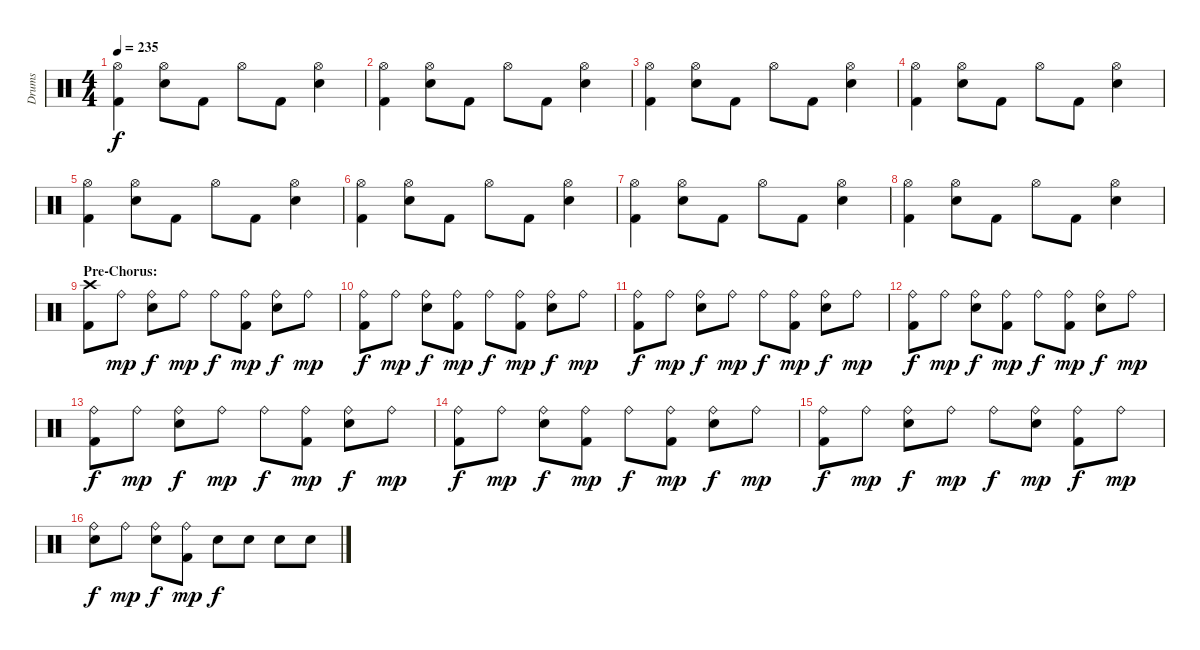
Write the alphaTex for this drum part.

\track ("Drums" "Drums") {instrument percussion}
\staff {score}
\articulation defaults
\ts (4 4)
\tempo 235
\clef neutral
\ks c
("Hi-Hat (open)" "Kick (hit) 2").4{dy f} ("Hi-Hat (open)" "Snare (hit) 2").8 "Kick (hit) 2".8 "Hi-Hat (open)".8 "Kick (hit) 2".8 ("Hi-Hat (open)" "Snare (hit) 2").4 |
("Hi-Hat (open)" "Kick (hit) 2").4 ("Hi-Hat (open)" "Snare (hit) 2").8 "Kick (hit) 2".8 "Hi-Hat (open)".8 "Kick (hit) 2".8 ("Hi-Hat (open)" "Snare (hit) 2").4 |
("Hi-Hat (open)" "Kick (hit) 2").4 ("Hi-Hat (open)" "Snare (hit) 2").8 "Kick (hit) 2".8 "Hi-Hat (open)".8 "Kick (hit) 2".8 ("Hi-Hat (open)" "Snare (hit) 2").4 |
("Hi-Hat (open)" "Kick (hit) 2").4 ("Hi-Hat (open)" "Snare (hit) 2").8 "Kick (hit) 2".8 "Hi-Hat (open)".8 "Kick (hit) 2".8 ("Hi-Hat (open)" "Snare (hit) 2").4 |
("Hi-Hat (open)" "Kick (hit) 2").4 ("Hi-Hat (open)" "Snare (hit) 2").8 "Kick (hit) 2".8 "Hi-Hat (open)".8 "Kick (hit) 2".8 ("Hi-Hat (open)" "Snare (hit) 2").4 |
("Hi-Hat (open)" "Kick (hit) 2").4 ("Hi-Hat (open)" "Snare (hit) 2").8 "Kick (hit) 2".8 "Hi-Hat (open)".8 "Kick (hit) 2".8 ("Hi-Hat (open)" "Snare (hit) 2").4 |
("Hi-Hat (open)" "Kick (hit) 2").4 ("Hi-Hat (open)" "Snare (hit) 2").8 "Kick (hit) 2".8 "Hi-Hat (open)".8 "Kick (hit) 2".8 ("Hi-Hat (open)" "Snare (hit) 2").4 |
("Hi-Hat (open)" "Kick (hit) 2").4 ("Hi-Hat (open)" "Snare (hit) 2").8 "Kick (hit) 2".8 "Hi-Hat (open)".8 "Kick (hit) 2".8 ("Hi-Hat (open)" "Snare (hit) 2").4 |
\section ("" "Pre-Chorus:")
("Crash high (hit)" "Kick (hit) 2").8 "Ride (bell)".8{dy mp} ("Ride (bell)" "Snare (hit) 2").8{dy f} "Ride (bell)".8{dy mp} "Ride (bell)".8{dy f} ("Ride (bell)" "Kick (hit) 2").8{dy mp} ("Ride (bell)" "Snare (hit) 2").8{dy f} "Ride (bell)".8{dy mp} |
("Ride (bell)" "Kick (hit) 2").8{dy f} "Ride (bell)".8{dy mp} ("Ride (bell)" "Snare (hit) 2").8{dy f} ("Ride (bell)" "Kick (hit) 2").8{dy mp} "Ride (bell)".8{dy f} ("Ride (bell)" "Kick (hit) 2").8{dy mp} ("Ride (bell)" "Snare (hit) 2").8{dy f} "Ride (bell)".8{dy mp} |
("Ride (bell)" "Kick (hit) 2").8{dy f} "Ride (bell)".8{dy mp} ("Ride (bell)" "Snare (hit) 2").8{dy f} "Ride (bell)".8{dy mp} "Ride (bell)".8{dy f} ("Ride (bell)" "Kick (hit) 2").8{dy mp} ("Ride (bell)" "Snare (hit) 2").8{dy f} "Ride (bell)".8{dy mp} |
("Ride (bell)" "Kick (hit) 2").8{dy f} "Ride (bell)".8{dy mp} ("Ride (bell)" "Snare (hit) 2").8{dy f} ("Ride (bell)" "Kick (hit) 2").8{dy mp} "Ride (bell)".8{dy f} ("Ride (bell)" "Kick (hit) 2").8{dy mp} ("Ride (bell)" "Snare (hit) 2").8{dy f} "Ride (bell)".8{dy mp} |
("Ride (bell)" "Kick (hit) 2").8{dy f} "Ride (bell)".8{dy mp} ("Ride (bell)" "Snare (hit) 2").8{dy f} "Ride (bell)".8{dy mp} "Ride (bell)".8{dy f} ("Ride (bell)" "Kick (hit) 2").8{dy mp} ("Ride (bell)" "Snare (hit) 2").8{dy f} "Ride (bell)".8{dy mp} |
("Ride (bell)" "Kick (hit) 2").8{dy f} "Ride (bell)".8{dy mp} ("Ride (bell)" "Snare (hit) 2").8{dy f} ("Ride (bell)" "Kick (hit) 2").8{dy mp} "Ride (bell)".8{dy f} ("Ride (bell)" "Kick (hit) 2").8{dy mp} ("Ride (bell)" "Snare (hit) 2").8{dy f} "Ride (bell)".8{dy mp} |
("Ride (bell)" "Kick (hit) 2").8{dy f} "Ride (bell)".8{dy mp} ("Ride (bell)" "Snare (hit) 2").8{dy f} "Ride (bell)".8{dy mp} "Ride (bell)".8{dy f} ("Ride (bell)" "Snare (hit) 2").8{dy mp} ("Ride (bell)" "Kick (hit) 2").8{dy f} "Ride (bell)".8{dy mp} |
("Ride (bell)" "Snare (hit) 2").8{dy f} "Ride (bell)".8{dy mp} ("Ride (bell)" "Snare (hit) 2").8{dy f} ("Ride (bell)" "Kick (hit) 2").8{dy mp} "Snare (hit) 2".8{dy f} "Snare (hit) 2".8 "Snare (hit) 2".8 "Snare (hit) 2".8
